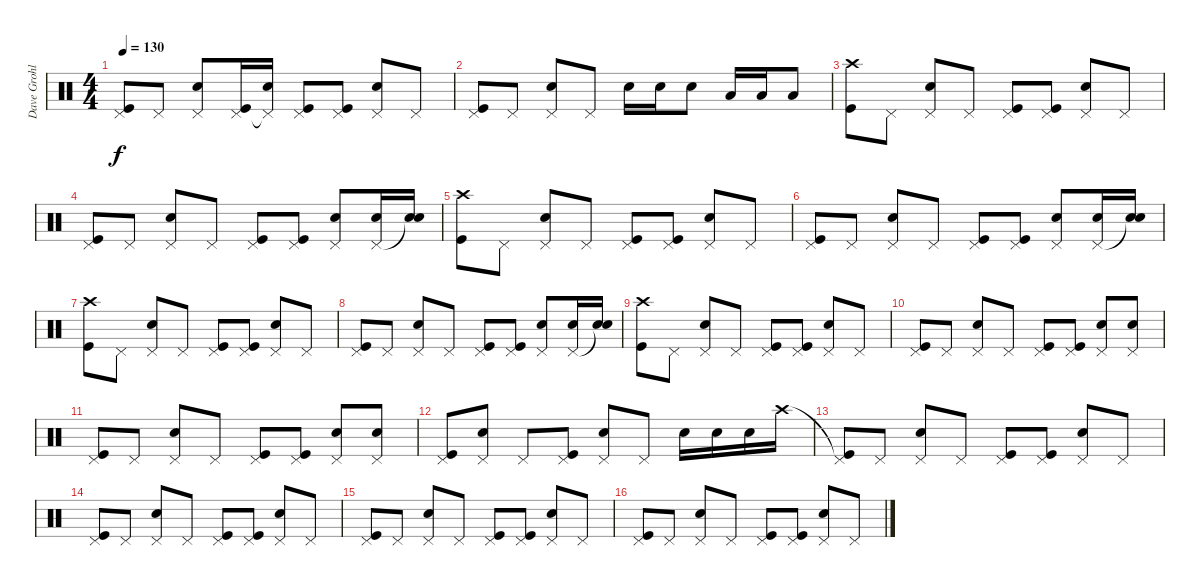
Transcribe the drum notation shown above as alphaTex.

\track ("Dave Grohl" "Dave Grohl") {instrument percussion}
\staff {score}
\articulation defaults
\ts (4 4)
\tempo 130
\clef neutral
\ks c
("Pedal Hi-Hat (hit)" "Kick (hit)").8{dy f} "Pedal Hi-Hat (hit)".8 ("Pedal Hi-Hat (hit)" "Snare (hit) 2").8 ("Pedal Hi-Hat (hit)" "Kick (hit)").16 ("Pedal Hi-Hat (hit)"{t} "Snare (hit) 2").16 ("Pedal Hi-Hat (hit)" "Kick (hit)").8 ("Pedal Hi-Hat (hit)" "Kick (hit)").8 ("Pedal Hi-Hat (hit)" "Snare (hit) 2").8 "Pedal Hi-Hat (hit)".8 |
("Pedal Hi-Hat (hit)" "Kick (hit)").8 "Pedal Hi-Hat (hit)".8 ("Pedal Hi-Hat (hit)" "Snare (hit) 2").8 "Pedal Hi-Hat (hit)".8 "Snare (hit) 2".16 "Snare (hit) 2".16 "Snare (hit) 2".8 "Low Tom (hit)".16 "Low Tom (hit)".16 "Low Tom (hit)".8 |
("Crash high (hit)" "Kick (hit)").8 "Pedal Hi-Hat (hit)".8 ("Pedal Hi-Hat (hit)" "Snare (hit) 2").8 "Pedal Hi-Hat (hit)".8 ("Pedal Hi-Hat (hit)" "Kick (hit)").8 ("Pedal Hi-Hat (hit)" "Kick (hit)").8 ("Pedal Hi-Hat (hit)" "Snare (hit) 2").8 "Pedal Hi-Hat (hit)".8 |
("Pedal Hi-Hat (hit)" "Kick (hit)").8 "Pedal Hi-Hat (hit)".8 ("Pedal Hi-Hat (hit)" "Snare (hit) 2").8 "Pedal Hi-Hat (hit)".8 ("Pedal Hi-Hat (hit)" "Kick (hit)").8 ("Pedal Hi-Hat (hit)" "Kick (hit)").8 ("Pedal Hi-Hat (hit)" "Snare (hit) 2").8 ("Pedal Hi-Hat (hit)" "Snare (hit) 2").16 ("Snare (hit)"{t} "Snare (hit) 2").16 |
("Crash high (hit)" "Kick (hit)").8 "Pedal Hi-Hat (hit)".8 ("Pedal Hi-Hat (hit)" "Snare (hit) 2").8 "Pedal Hi-Hat (hit)".8 ("Pedal Hi-Hat (hit)" "Kick (hit)").8 ("Pedal Hi-Hat (hit)" "Kick (hit)").8 ("Pedal Hi-Hat (hit)" "Snare (hit) 2").8 "Pedal Hi-Hat (hit)".8 |
("Pedal Hi-Hat (hit)" "Kick (hit)").8 "Pedal Hi-Hat (hit)".8 ("Pedal Hi-Hat (hit)" "Snare (hit) 2").8 "Pedal Hi-Hat (hit)".8 ("Pedal Hi-Hat (hit)" "Kick (hit)").8 ("Pedal Hi-Hat (hit)" "Kick (hit)").8 ("Pedal Hi-Hat (hit)" "Snare (hit) 2").8 ("Pedal Hi-Hat (hit)" "Snare (hit) 2").16 ("Snare (hit)"{t} "Snare (hit) 2").16 |
("Crash high (hit)" "Kick (hit)").8 "Pedal Hi-Hat (hit)".8 ("Pedal Hi-Hat (hit)" "Snare (hit) 2").8 "Pedal Hi-Hat (hit)".8 ("Pedal Hi-Hat (hit)" "Kick (hit)").8 ("Pedal Hi-Hat (hit)" "Kick (hit)").8 ("Pedal Hi-Hat (hit)" "Snare (hit) 2").8 "Pedal Hi-Hat (hit)".8 |
("Pedal Hi-Hat (hit)" "Kick (hit)").8 "Pedal Hi-Hat (hit)".8 ("Pedal Hi-Hat (hit)" "Snare (hit) 2").8 "Pedal Hi-Hat (hit)".8 ("Pedal Hi-Hat (hit)" "Kick (hit)").8 ("Pedal Hi-Hat (hit)" "Kick (hit)").8 ("Pedal Hi-Hat (hit)" "Snare (hit) 2").8 ("Pedal Hi-Hat (hit)" "Snare (hit) 2").16 ("Snare (hit)"{t} "Snare (hit) 2").16 |
("Crash high (hit)" "Kick (hit)").8 "Pedal Hi-Hat (hit)".8 ("Pedal Hi-Hat (hit)" "Snare (hit) 2").8 "Pedal Hi-Hat (hit)".8 ("Pedal Hi-Hat (hit)" "Kick (hit)").8 ("Pedal Hi-Hat (hit)" "Kick (hit)").8 ("Pedal Hi-Hat (hit)" "Snare (hit) 2").8 "Pedal Hi-Hat (hit)".8 |
("Pedal Hi-Hat (hit)" "Kick (hit)").8 "Pedal Hi-Hat (hit)".8 ("Pedal Hi-Hat (hit)" "Snare (hit) 2").8 "Pedal Hi-Hat (hit)".8 ("Pedal Hi-Hat (hit)" "Kick (hit)").8 ("Pedal Hi-Hat (hit)" "Kick (hit)").8 ("Pedal Hi-Hat (hit)" "Snare (hit) 2").8 ("Pedal Hi-Hat (hit)" "Snare (hit) 2").8 |
("Pedal Hi-Hat (hit)" "Kick (hit)").8 "Pedal Hi-Hat (hit)".8 ("Pedal Hi-Hat (hit)" "Snare (hit) 2").8 "Pedal Hi-Hat (hit)".8 ("Pedal Hi-Hat (hit)" "Kick (hit)").8 ("Pedal Hi-Hat (hit)" "Kick (hit)").8 ("Pedal Hi-Hat (hit)" "Snare (hit) 2").8 ("Pedal Hi-Hat (hit)" "Snare (hit) 2").8 |
("Pedal Hi-Hat (hit)" "Kick (hit)").8 ("Pedal Hi-Hat (hit)" "Snare (hit) 2").8 "Pedal Hi-Hat (hit)".8 ("Pedal Hi-Hat (hit)" "Kick (hit)").8 ("Pedal Hi-Hat (hit)" "Snare (hit) 2").8 "Pedal Hi-Hat (hit)".8 "Snare (hit) 2".16 "Snare (hit) 2".16 "Snare (hit) 2".16 "Crash high (hit)".16 |
("Pedal Hi-Hat (hit)"{t} "Kick (hit)").8 "Pedal Hi-Hat (hit)".8 ("Pedal Hi-Hat (hit)" "Snare (hit) 2").8 "Pedal Hi-Hat (hit)".8 ("Pedal Hi-Hat (hit)" "Kick (hit)").8 ("Pedal Hi-Hat (hit)" "Kick (hit)").8 ("Pedal Hi-Hat (hit)" "Snare (hit) 2").8 "Pedal Hi-Hat (hit)".8 |
("Pedal Hi-Hat (hit)" "Kick (hit)").8 "Pedal Hi-Hat (hit)".8 ("Pedal Hi-Hat (hit)" "Snare (hit) 2").8 "Pedal Hi-Hat (hit)".8 ("Pedal Hi-Hat (hit)" "Kick (hit)").8 ("Pedal Hi-Hat (hit)" "Kick (hit)").8 ("Pedal Hi-Hat (hit)" "Snare (hit) 2").8 "Pedal Hi-Hat (hit)".8 |
("Pedal Hi-Hat (hit)" "Kick (hit)").8 "Pedal Hi-Hat (hit)".8 ("Pedal Hi-Hat (hit)" "Snare (hit) 2").8 "Pedal Hi-Hat (hit)".8 ("Pedal Hi-Hat (hit)" "Kick (hit)").8 ("Pedal Hi-Hat (hit)" "Kick (hit)").8 ("Pedal Hi-Hat (hit)" "Snare (hit) 2").8 "Pedal Hi-Hat (hit)".8 |
("Pedal Hi-Hat (hit)" "Kick (hit)").8 "Pedal Hi-Hat (hit)".8 ("Pedal Hi-Hat (hit)" "Snare (hit) 2").8 "Pedal Hi-Hat (hit)".8 ("Pedal Hi-Hat (hit)" "Kick (hit)").8 ("Pedal Hi-Hat (hit)" "Kick (hit)").8 ("Pedal Hi-Hat (hit)" "Snare (hit) 2").8 "Pedal Hi-Hat (hit)".8
